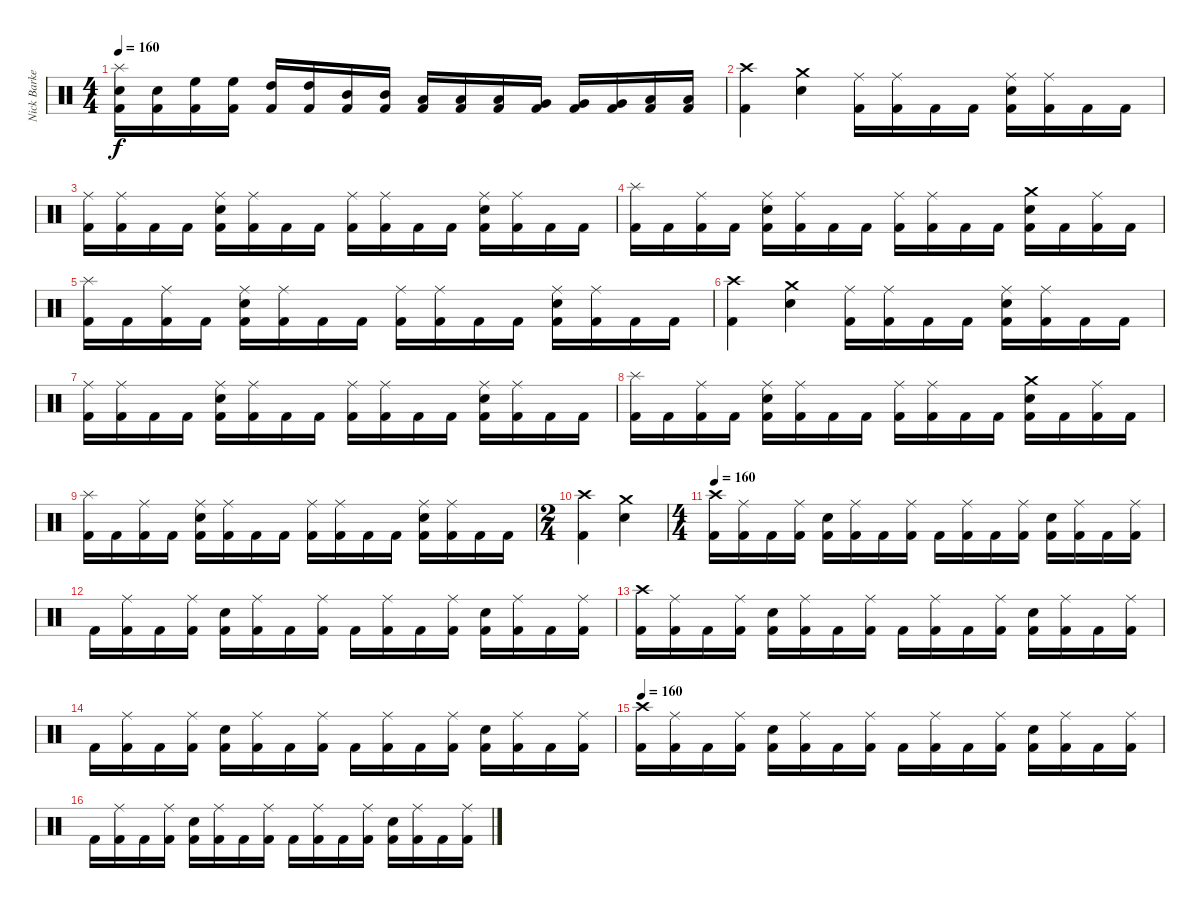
\track ("Nick Barker" "Nick Barke") {instrument percussion}
\staff {score}
\articulation defaults
\ts (4 4)
\tempo 160
\clef neutral
\ks c
("Splash (hit)" "Electric Snare (hit)" "Kick (hit) 2").16{dy f} ("Electric Snare (hit)" "Kick (hit) 2").16 ("High Floor Tom (hit)" "Kick (hit) 2").16 ("High Floor Tom (hit)" "Kick (hit) 2").16 ("High Tom (hit)" "Kick (hit) 2").16 ("High Tom (hit)" "Kick (hit) 2").16 ("Mid Tom (hit)" "Kick (hit) 2").16 ("Mid Tom (hit)" "Kick (hit) 2").16 ("Low Tom (hit)" "Kick (hit) 2").16 ("Low Tom (hit)" "Kick (hit) 2").16 ("Low Tom (hit)" "Kick (hit) 2").16 ("Very Low Tom (hit)" "Kick (hit) 2").16 ("Very Low Tom (hit)" "Kick (hit) 2").16 ("Very Low Tom (hit)" "Kick (hit) 2").16 ("Low Floor Tom (hit)" "Kick (hit) 2").16 ("Low Floor Tom (hit)" "Kick (hit) 2").16 |
("Crash high (hit)" "Kick (hit) 2").4 ("Crash medium (hit)" "Electric Snare (hit)").4 ("Ride (middle)" "Kick (hit) 2").16 ("Ride (middle)" "Kick (hit) 2").16 "Kick (hit) 2".16 "Kick (hit) 2".16 ("Ride (middle)" "Electric Snare (hit)" "Kick (hit) 2").16 ("Ride (middle)" "Kick (hit) 2").16 "Kick (hit) 2".16 "Kick (hit) 2".16 |
("Ride (middle)" "Kick (hit) 2").16 ("Ride (middle)" "Kick (hit) 2").16 "Kick (hit) 2".16 "Kick (hit) 2".16 ("Ride (middle)" "Electric Snare (hit)" "Kick (hit) 2").16 ("Ride (middle)" "Kick (hit) 2").16 "Kick (hit) 2".16 "Kick (hit) 2".16 ("Ride (middle)" "Kick (hit) 2").16 ("Ride (middle)" "Kick (hit) 2").16 "Kick (hit) 2".16 "Kick (hit) 2".16 ("Ride (middle)" "Electric Snare (hit)" "Kick (hit) 2").16 ("Ride (middle)" "Kick (hit) 2").16 "Kick (hit) 2".16 "Kick (hit) 2".16 |
("Splash (hit)" "Kick (hit) 2").16 "Kick (hit) 2".16 ("Ride (middle)" "Kick (hit) 2").16 "Kick (hit) 2".16 ("Ride (middle)" "Electric Snare (hit)" "Kick (hit) 2").16 ("Ride (middle)" "Kick (hit) 2").16 "Kick (hit) 2".16 "Kick (hit) 2".16 ("Ride (middle)" "Kick (hit) 2").16 ("Ride (middle)" "Kick (hit) 2").16 "Kick (hit) 2".16 "Kick (hit) 2".16 ("Crash medium (hit)" "Electric Snare (hit)" "Kick (hit) 2").16 "Kick (hit) 2".16 ("Ride (middle)" "Kick (hit) 2").16 "Kick (hit) 2".16 |
("Splash (hit)" "Kick (hit) 2").16 "Kick (hit) 2".16 ("Ride (middle)" "Kick (hit) 2").16 "Kick (hit) 2".16 ("Ride (middle)" "Electric Snare (hit)" "Kick (hit) 2").16 ("Ride (middle)" "Kick (hit) 2").16 "Kick (hit) 2".16 "Kick (hit) 2".16 ("Ride (middle)" "Kick (hit) 2").16 ("Ride (middle)" "Kick (hit) 2").16 "Kick (hit) 2".16 "Kick (hit) 2".16 ("Ride (middle)" "Electric Snare (hit)" "Kick (hit) 2").16 ("Ride (middle)" "Kick (hit) 2").16 "Kick (hit) 2".16 "Kick (hit) 2".16 |
("Crash high (hit)" "Kick (hit) 2").4 ("Crash medium (hit)" "Electric Snare (hit)").4 ("Ride (middle)" "Kick (hit) 2").16 ("Ride (middle)" "Kick (hit) 2").16 "Kick (hit) 2".16 "Kick (hit) 2".16 ("Ride (middle)" "Electric Snare (hit)" "Kick (hit) 2").16 ("Ride (middle)" "Kick (hit) 2").16 "Kick (hit) 2".16 "Kick (hit) 2".16 |
("Ride (middle)" "Kick (hit) 2").16 ("Ride (middle)" "Kick (hit) 2").16 "Kick (hit) 2".16 "Kick (hit) 2".16 ("Ride (middle)" "Electric Snare (hit)" "Kick (hit) 2").16 ("Ride (middle)" "Kick (hit) 2").16 "Kick (hit) 2".16 "Kick (hit) 2".16 ("Ride (middle)" "Kick (hit) 2").16 ("Ride (middle)" "Kick (hit) 2").16 "Kick (hit) 2".16 "Kick (hit) 2".16 ("Ride (middle)" "Electric Snare (hit)" "Kick (hit) 2").16 ("Ride (middle)" "Kick (hit) 2").16 "Kick (hit) 2".16 "Kick (hit) 2".16 |
("Splash (hit)" "Kick (hit) 2").16 "Kick (hit) 2".16 ("Ride (middle)" "Kick (hit) 2").16 "Kick (hit) 2".16 ("Ride (middle)" "Electric Snare (hit)" "Kick (hit) 2").16 ("Ride (middle)" "Kick (hit) 2").16 "Kick (hit) 2".16 "Kick (hit) 2".16 ("Ride (middle)" "Kick (hit) 2").16 ("Ride (middle)" "Kick (hit) 2").16 "Kick (hit) 2".16 "Kick (hit) 2".16 ("Crash medium (hit)" "Electric Snare (hit)" "Kick (hit) 2").16 "Kick (hit) 2".16 ("Ride (middle)" "Kick (hit) 2").16 "Kick (hit) 2".16 |
("Splash (hit)" "Kick (hit) 2").16 "Kick (hit) 2".16 ("Ride (middle)" "Kick (hit) 2").16 "Kick (hit) 2".16 ("Ride (middle)" "Electric Snare (hit)" "Kick (hit) 2").16 ("Ride (middle)" "Kick (hit) 2").16 "Kick (hit) 2".16 "Kick (hit) 2".16 ("Ride (middle)" "Kick (hit) 2").16 ("Ride (middle)" "Kick (hit) 2").16 "Kick (hit) 2".16 "Kick (hit) 2".16 ("Ride (middle)" "Electric Snare (hit)" "Kick (hit) 2").16 ("Ride (middle)" "Kick (hit) 2").16 "Kick (hit) 2".16 "Kick (hit) 2".16 |
\ts (2 4)
\section ("" "")
("Crash high (hit)" "Kick (hit) 2").4 ("Crash medium (hit)" "Electric Snare (hit)").4 |
\ts (4 4)
\tempo 160
("Crash high (hit)" "Kick (hit) 2").16 ("Ride (middle)" "Kick (hit) 2").16 "Kick (hit) 2".16 ("Ride (middle)" "Kick (hit) 2").16 ("Electric Snare (hit)" "Kick (hit) 2").16 ("Ride (middle)" "Kick (hit) 2").16 "Kick (hit) 2".16 ("Ride (middle)" "Kick (hit) 2").16 "Kick (hit) 2".16 ("Ride (middle)" "Kick (hit) 2").16 "Kick (hit) 2".16 ("Ride (middle)" "Kick (hit) 2").16 ("Electric Snare (hit)" "Kick (hit) 2").16 ("Ride (middle)" "Kick (hit) 2").16 "Kick (hit) 2".16 ("Ride (middle)" "Kick (hit) 2").16 |
"Kick (hit) 2".16 ("Ride (middle)" "Kick (hit) 2").16 "Kick (hit) 2".16 ("Ride (middle)" "Kick (hit) 2").16 ("Electric Snare (hit)" "Kick (hit) 2").16 ("Ride (middle)" "Kick (hit) 2").16 "Kick (hit) 2".16 ("Ride (middle)" "Kick (hit) 2").16 "Kick (hit) 2".16 ("Ride (middle)" "Kick (hit) 2").16 "Kick (hit) 2".16 ("Ride (middle)" "Kick (hit) 2").16 ("Electric Snare (hit)" "Kick (hit) 2").16 ("Ride (middle)" "Kick (hit) 2").16 "Kick (hit) 2".16 ("Ride (middle)" "Kick (hit) 2").16 |
("Crash high (hit)" "Kick (hit) 2").16 ("Ride (middle)" "Kick (hit) 2").16 "Kick (hit) 2".16 ("Ride (middle)" "Kick (hit) 2").16 ("Electric Snare (hit)" "Kick (hit) 2").16 ("Ride (middle)" "Kick (hit) 2").16 "Kick (hit) 2".16 ("Ride (middle)" "Kick (hit) 2").16 "Kick (hit) 2".16 ("Ride (middle)" "Kick (hit) 2").16 "Kick (hit) 2".16 ("Ride (middle)" "Kick (hit) 2").16 ("Electric Snare (hit)" "Kick (hit) 2").16 ("Ride (middle)" "Kick (hit) 2").16 "Kick (hit) 2".16 ("Ride (middle)" "Kick (hit) 2").16 |
"Kick (hit) 2".16 ("Ride (middle)" "Kick (hit) 2").16 "Kick (hit) 2".16 ("Ride (middle)" "Kick (hit) 2").16 ("Electric Snare (hit)" "Kick (hit) 2").16 ("Ride (middle)" "Kick (hit) 2").16 "Kick (hit) 2".16 ("Ride (middle)" "Kick (hit) 2").16 "Kick (hit) 2".16 ("Ride (middle)" "Kick (hit) 2").16 "Kick (hit) 2".16 ("Ride (middle)" "Kick (hit) 2").16 ("Electric Snare (hit)" "Kick (hit) 2").16 ("Ride (middle)" "Kick (hit) 2").16 "Kick (hit) 2".16 ("Ride (middle)" "Kick (hit) 2").16 |
\tempo 160
("Crash high (hit)" "Kick (hit) 2").16 ("Ride (middle)" "Kick (hit) 2").16 "Kick (hit) 2".16 ("Ride (middle)" "Kick (hit) 2").16 ("Electric Snare (hit)" "Kick (hit) 2").16 ("Ride (middle)" "Kick (hit) 2").16 "Kick (hit) 2".16 ("Ride (middle)" "Kick (hit) 2").16 "Kick (hit) 2".16 ("Ride (middle)" "Kick (hit) 2").16 "Kick (hit) 2".16 ("Ride (middle)" "Kick (hit) 2").16 ("Electric Snare (hit)" "Kick (hit) 2").16 ("Ride (middle)" "Kick (hit) 2").16 "Kick (hit) 2".16 ("Ride (middle)" "Kick (hit) 2").16 |
"Kick (hit) 2".16 ("Ride (middle)" "Kick (hit) 2").16 "Kick (hit) 2".16 ("Ride (middle)" "Kick (hit) 2").16 ("Electric Snare (hit)" "Kick (hit) 2").16 ("Ride (middle)" "Kick (hit) 2").16 "Kick (hit) 2".16 ("Ride (middle)" "Kick (hit) 2").16 "Kick (hit) 2".16 ("Ride (middle)" "Kick (hit) 2").16 "Kick (hit) 2".16 ("Ride (middle)" "Kick (hit) 2").16 ("Electric Snare (hit)" "Kick (hit) 2").16 ("Ride (middle)" "Kick (hit) 2").16 "Kick (hit) 2".16 ("Ride (middle)" "Kick (hit) 2").16
